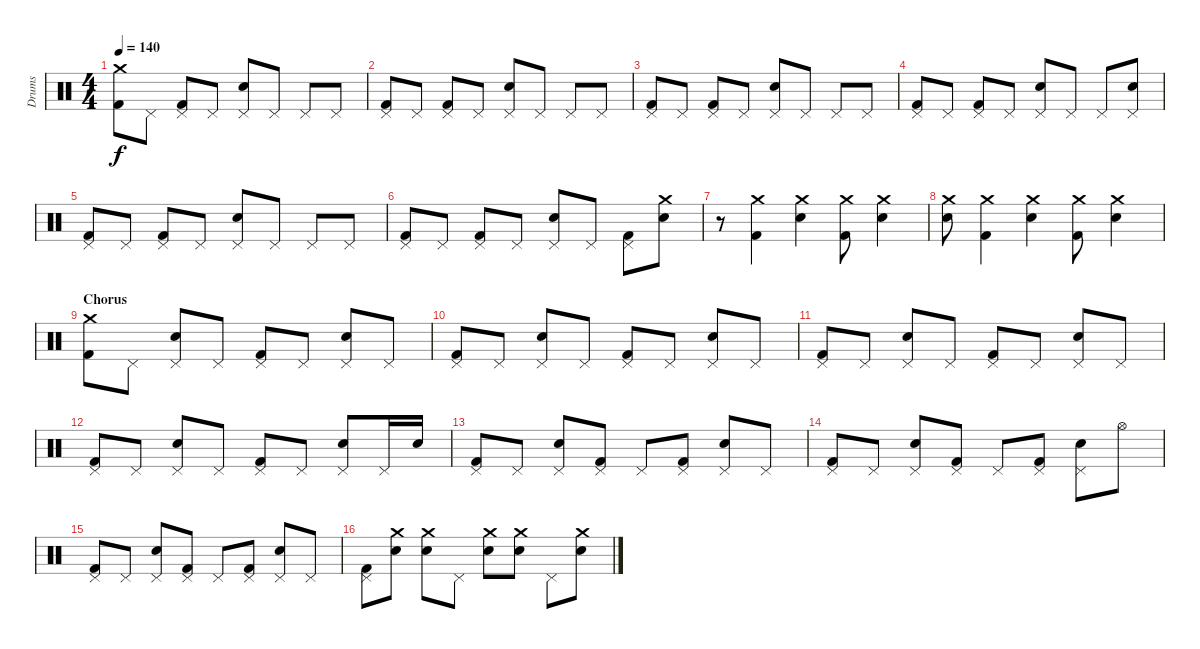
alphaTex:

\track ("Drums" "Drums") {instrument percussion}
\staff {score}
\articulation defaults
\ts (4 4)
\tempo 140
\clef neutral
\ks c
("Crash medium (hit)" "Kick (hit) 2").8{dy f} "Pedal Hi-Hat (hit)".8 ("Pedal Hi-Hat (hit)" "Kick (hit) 2").8 "Pedal Hi-Hat (hit)".8 ("Pedal Hi-Hat (hit)" "Electric Snare (hit)").8 "Pedal Hi-Hat (hit)".8 "Pedal Hi-Hat (hit)".8 "Pedal Hi-Hat (hit)".8 |
("Pedal Hi-Hat (hit)" "Kick (hit) 2").8 "Pedal Hi-Hat (hit)".8 ("Pedal Hi-Hat (hit)" "Kick (hit) 2").8 "Pedal Hi-Hat (hit)".8 ("Pedal Hi-Hat (hit)" "Electric Snare (hit)").8 "Pedal Hi-Hat (hit)".8 "Pedal Hi-Hat (hit)".8 "Pedal Hi-Hat (hit)".8 |
("Pedal Hi-Hat (hit)" "Kick (hit) 2").8 "Pedal Hi-Hat (hit)".8 ("Pedal Hi-Hat (hit)" "Kick (hit) 2").8 "Pedal Hi-Hat (hit)".8 ("Pedal Hi-Hat (hit)" "Electric Snare (hit)").8 "Pedal Hi-Hat (hit)".8 "Pedal Hi-Hat (hit)".8 "Pedal Hi-Hat (hit)".8 |
("Pedal Hi-Hat (hit)" "Kick (hit) 2").8 "Pedal Hi-Hat (hit)".8 ("Pedal Hi-Hat (hit)" "Kick (hit) 2").8 "Pedal Hi-Hat (hit)".8 ("Pedal Hi-Hat (hit)" "Electric Snare (hit)").8 "Pedal Hi-Hat (hit)".8 "Pedal Hi-Hat (hit)".8 ("Pedal Hi-Hat (hit)" "Electric Snare (hit)").8 |
("Pedal Hi-Hat (hit)" "Kick (hit) 2").8 "Pedal Hi-Hat (hit)".8 ("Pedal Hi-Hat (hit)" "Kick (hit) 2").8 "Pedal Hi-Hat (hit)".8 ("Pedal Hi-Hat (hit)" "Electric Snare (hit)").8 "Pedal Hi-Hat (hit)".8 "Pedal Hi-Hat (hit)".8 "Pedal Hi-Hat (hit)".8 |
("Pedal Hi-Hat (hit)" "Kick (hit) 2").8 "Pedal Hi-Hat (hit)".8 ("Pedal Hi-Hat (hit)" "Kick (hit) 2").8 "Pedal Hi-Hat (hit)".8 ("Pedal Hi-Hat (hit)" "Electric Snare (hit)").8 "Pedal Hi-Hat (hit)".8 ("Pedal Hi-Hat (hit)" "Kick (hit) 2").8 ("Crash medium (hit)" "Electric Snare (hit)").8 |
r.8 ("Kick (hit) 2" "Crash medium (hit)").4 ("Electric Snare (hit)" "Crash medium (hit)").4 ("Kick (hit) 2" "Crash medium (hit)").8 ("Electric Snare (hit)" "Crash medium (hit)").4 |
("Electric Snare (hit)" "Crash medium (hit)").8 ("Kick (hit) 2" "Crash medium (hit)").4 ("Electric Snare (hit)" "Crash medium (hit)").4 ("Kick (hit) 2" "Crash medium (hit)").8 ("Electric Snare (hit)" "Crash medium (hit)").4 |
\section ("" "Chorus")
("Crash medium (hit)" "Kick (hit) 2").8 "Pedal Hi-Hat (hit)".8 ("Pedal Hi-Hat (hit)" "Electric Snare (hit)").8 "Pedal Hi-Hat (hit)".8 ("Pedal Hi-Hat (hit)" "Kick (hit) 2").8 "Pedal Hi-Hat (hit)".8 ("Pedal Hi-Hat (hit)" "Electric Snare (hit)").8 "Pedal Hi-Hat (hit)".8 |
("Pedal Hi-Hat (hit)" "Kick (hit) 2").8 "Pedal Hi-Hat (hit)".8 ("Pedal Hi-Hat (hit)" "Electric Snare (hit)").8 "Pedal Hi-Hat (hit)".8 ("Pedal Hi-Hat (hit)" "Kick (hit) 2").8 "Pedal Hi-Hat (hit)".8 ("Pedal Hi-Hat (hit)" "Electric Snare (hit)").8 "Pedal Hi-Hat (hit)".8 |
("Pedal Hi-Hat (hit)" "Kick (hit) 2").8 "Pedal Hi-Hat (hit)".8 ("Pedal Hi-Hat (hit)" "Electric Snare (hit)").8 "Pedal Hi-Hat (hit)".8 ("Pedal Hi-Hat (hit)" "Kick (hit) 2").8 "Pedal Hi-Hat (hit)".8 ("Pedal Hi-Hat (hit)" "Electric Snare (hit)").8 "Pedal Hi-Hat (hit)".8 |
("Pedal Hi-Hat (hit)" "Kick (hit) 2").8 "Pedal Hi-Hat (hit)".8 ("Pedal Hi-Hat (hit)" "Electric Snare (hit)").8 "Pedal Hi-Hat (hit)".8 ("Pedal Hi-Hat (hit)" "Kick (hit) 2").8 "Pedal Hi-Hat (hit)".8 ("Pedal Hi-Hat (hit)" "Electric Snare (hit)").8 "Pedal Hi-Hat (hit)".16 "Electric Snare (hit)".16 |
("Pedal Hi-Hat (hit)" "Kick (hit) 2").8 "Pedal Hi-Hat (hit)".8 ("Pedal Hi-Hat (hit)" "Electric Snare (hit)").8 ("Pedal Hi-Hat (hit)" "Kick (hit) 2").8 "Pedal Hi-Hat (hit)".8 ("Pedal Hi-Hat (hit)" "Kick (hit) 2").8 ("Pedal Hi-Hat (hit)" "Electric Snare (hit)").8 "Pedal Hi-Hat (hit)".8 |
("Pedal Hi-Hat (hit)" "Kick (hit) 2").8 "Pedal Hi-Hat (hit)".8 ("Pedal Hi-Hat (hit)" "Electric Snare (hit)").8 ("Pedal Hi-Hat (hit)" "Kick (hit) 2").8 "Pedal Hi-Hat (hit)".8 ("Pedal Hi-Hat (hit)" "Kick (hit) 2").8 ("Pedal Hi-Hat (hit)" "Electric Snare (hit)").8 "Hi-Hat (open)".8 |
("Pedal Hi-Hat (hit)" "Kick (hit) 2").8 "Pedal Hi-Hat (hit)".8 ("Pedal Hi-Hat (hit)" "Electric Snare (hit)").8 ("Pedal Hi-Hat (hit)" "Kick (hit) 2").8 "Pedal Hi-Hat (hit)".8 ("Pedal Hi-Hat (hit)" "Kick (hit) 2").8 ("Pedal Hi-Hat (hit)" "Electric Snare (hit)").8 "Pedal Hi-Hat (hit)".8 |
("Pedal Hi-Hat (hit)" "Kick (hit) 2").8 ("Crash medium (hit)" "Electric Snare (hit)").8 ("Crash medium (hit)" "Electric Snare (hit)").8 "Pedal Hi-Hat (hit)".8 ("Crash medium (hit)" "Electric Snare (hit)").8 ("Crash medium (hit)" "Electric Snare (hit)").8 "Pedal Hi-Hat (hit)".8 ("Crash medium (hit)" "Electric Snare (hit)").8
